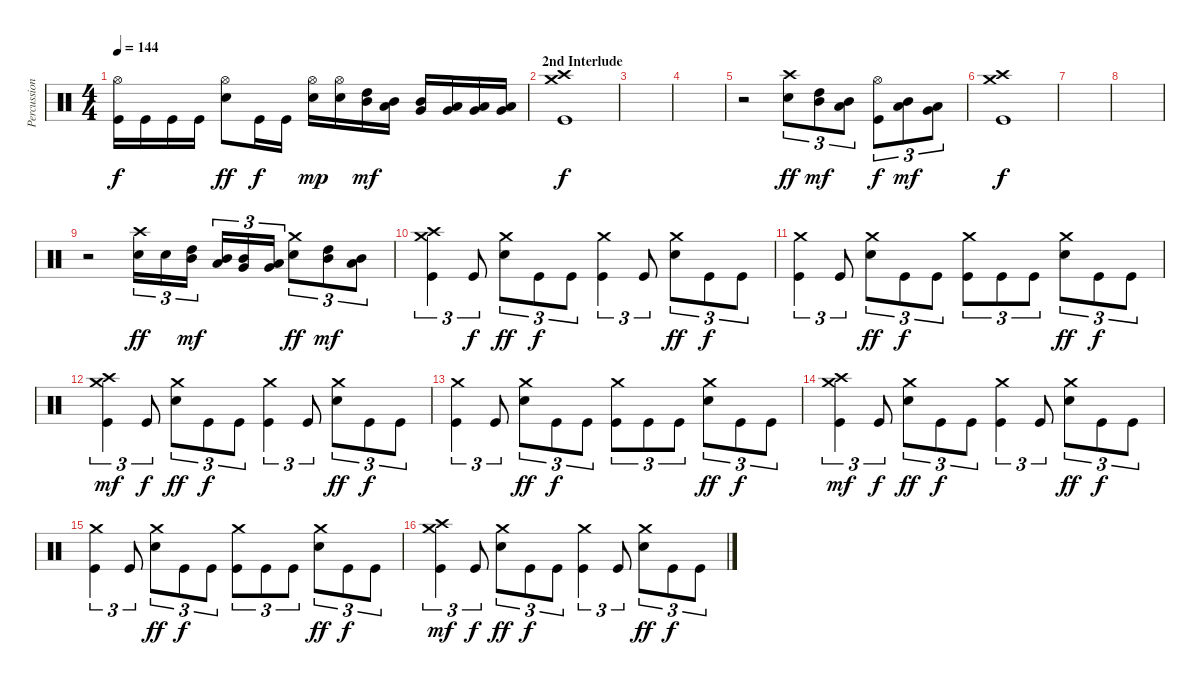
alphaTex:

\track ("Percussions" "Percussion") {instrument percussion}
\staff {score}
\articulation defaults
\ts (4 4)
\tempo 144
\clef neutral
\ks c
("Kick (hit)" "Hi-Hat (open)").16{dy f} "Kick (hit)".16 "Kick (hit)".16 "Kick (hit)".16 ("Electric Snare (hit)" "Hi-Hat (open)").8{dy ff} "Kick (hit)".16{dy f} "Kick (hit)".16 ("Electric Snare (hit)" "Hi-Hat (open)").16{dy mp} ("Electric Snare (hit)" "Hi-Hat (open)").16 ("Mid Tom (hit)" "High Tom (hit)").16{dy mf} ("Low Tom (hit)" "Mid Tom (hit)").16 ("Very Low Tom (hit)" "Mid Tom (hit)").16 ("Very Low Tom (hit)" "Low Tom (hit)").16 ("Very Low Tom (hit)" "Low Tom (hit)").16 ("Low Floor Tom (hit)" "Very Low Tom (hit)").16 |
\section ("" "2nd Interlude")
("Kick (hit)" "Crash high (hit)" "Crash medium (hit)").1{dy f} |
|
|
r.2 ("Electric Snare (hit)" "Crash high (hit)").8{tu (3 2) dy ff} ("Mid Tom (hit)" "High Tom (hit)").8{tu (3 2) dy mf} ("Low Tom (hit)" "Mid Tom (hit)").8{tu (3 2)} ("Kick (hit)" "Hi-Hat (open)").8{tu (3 2) dy f} ("Low Tom (hit)" "Mid Tom (hit)").8{tu (3 2) dy mf} ("Very Low Tom (hit)" "Low Tom (hit)").8{tu (3 2)} |
("Kick (hit)" "Crash high (hit)" "Crash medium (hit)").1{dy f} |
|
|
r.2 ("Electric Snare (hit)" "Crash high (hit)").16{tu (3 2) dy ff} "Electric Snare (hit)".16{tu (3 2)} ("Mid Tom (hit)" "High Tom (hit)").16{tu (3 2) dy mf} ("Low Tom (hit)" "Mid Tom (hit)").16{tu (3 2)} ("Very Low Tom (hit)" "Mid Tom (hit)").16{tu (3 2)} ("Very Low Tom (hit)" "Low Tom (hit)").16{tu (3 2)} ("Electric Snare (hit)" "Crash medium (hit)").8{tu (3 2) dy ff} ("Mid Tom (hit)" "High Tom (hit)").8{tu (3 2) dy mf} ("Low Tom (hit)" "Mid Tom (hit)").8{tu (3 2)} |
("Kick (hit)" "Crash medium (hit)" "Crash high (hit)").4{tu (3 2)} "Kick (hit)".8{tu (3 2) dy f} ("Electric Snare (hit)" "Crash medium (hit)").8{tu (3 2) dy ff} "Kick (hit)".8{tu (3 2) dy f} "Kick (hit)".8{tu (3 2)} ("Kick (hit)" "Crash medium (hit)").4{tu (3 2)} "Kick (hit)".8{tu (3 2)} ("Electric Snare (hit)" "Crash medium (hit)").8{tu (3 2) dy ff} "Kick (hit)".8{tu (3 2) dy f} "Kick (hit)".8{tu (3 2)} |
("Kick (hit)" "Crash medium (hit)").4{tu (3 2)} "Kick (hit)".8{tu (3 2)} ("Electric Snare (hit)" "Crash medium (hit)").8{tu (3 2) dy ff} "Kick (hit)".8{tu (3 2) dy f} "Kick (hit)".8{tu (3 2)} ("Kick (hit)" "Crash medium (hit)").8{tu (3 2)} "Kick (hit)".8{tu (3 2)} "Kick (hit)".8{tu (3 2)} ("Electric Snare (hit)" "Crash medium (hit)").8{tu (3 2) dy ff} "Kick (hit)".8{tu (3 2) dy f} "Kick (hit)".8{tu (3 2)} |
("Kick (hit)" "Crash medium (hit)" "Crash high (hit)").4{tu (3 2) dy mf} "Kick (hit)".8{tu (3 2) dy f} ("Electric Snare (hit)" "Crash medium (hit)").8{tu (3 2) dy ff} "Kick (hit)".8{tu (3 2) dy f} "Kick (hit)".8{tu (3 2)} ("Kick (hit)" "Crash medium (hit)").4{tu (3 2)} "Kick (hit)".8{tu (3 2)} ("Electric Snare (hit)" "Crash medium (hit)").8{tu (3 2) dy ff} "Kick (hit)".8{tu (3 2) dy f} "Kick (hit)".8{tu (3 2)} |
("Kick (hit)" "Crash medium (hit)").4{tu (3 2)} "Kick (hit)".8{tu (3 2)} ("Electric Snare (hit)" "Crash medium (hit)").8{tu (3 2) dy ff} "Kick (hit)".8{tu (3 2) dy f} "Kick (hit)".8{tu (3 2)} ("Kick (hit)" "Crash medium (hit)").8{tu (3 2)} "Kick (hit)".8{tu (3 2)} "Kick (hit)".8{tu (3 2)} ("Electric Snare (hit)" "Crash medium (hit)").8{tu (3 2) dy ff} "Kick (hit)".8{tu (3 2) dy f} "Kick (hit)".8{tu (3 2)} |
("Kick (hit)" "Crash medium (hit)" "Crash high (hit)").4{tu (3 2) dy mf} "Kick (hit)".8{tu (3 2) dy f} ("Electric Snare (hit)" "Crash medium (hit)").8{tu (3 2) dy ff} "Kick (hit)".8{tu (3 2) dy f} "Kick (hit)".8{tu (3 2)} ("Kick (hit)" "Crash medium (hit)").4{tu (3 2)} "Kick (hit)".8{tu (3 2)} ("Electric Snare (hit)" "Crash medium (hit)").8{tu (3 2) dy ff} "Kick (hit)".8{tu (3 2) dy f} "Kick (hit)".8{tu (3 2)} |
("Kick (hit)" "Crash medium (hit)").4{tu (3 2)} "Kick (hit)".8{tu (3 2)} ("Electric Snare (hit)" "Crash medium (hit)").8{tu (3 2) dy ff} "Kick (hit)".8{tu (3 2) dy f} "Kick (hit)".8{tu (3 2)} ("Kick (hit)" "Crash medium (hit)").8{tu (3 2)} "Kick (hit)".8{tu (3 2)} "Kick (hit)".8{tu (3 2)} ("Electric Snare (hit)" "Crash medium (hit)").8{tu (3 2) dy ff} "Kick (hit)".8{tu (3 2) dy f} "Kick (hit)".8{tu (3 2)} |
("Kick (hit)" "Crash medium (hit)" "Crash high (hit)").4{tu (3 2) dy mf} "Kick (hit)".8{tu (3 2) dy f} ("Electric Snare (hit)" "Crash medium (hit)").8{tu (3 2) dy ff} "Kick (hit)".8{tu (3 2) dy f} "Kick (hit)".8{tu (3 2)} ("Kick (hit)" "Crash medium (hit)").4{tu (3 2)} "Kick (hit)".8{tu (3 2)} ("Electric Snare (hit)" "Crash medium (hit)").8{tu (3 2) dy ff} "Kick (hit)".8{tu (3 2) dy f} "Kick (hit)".8{tu (3 2)}
